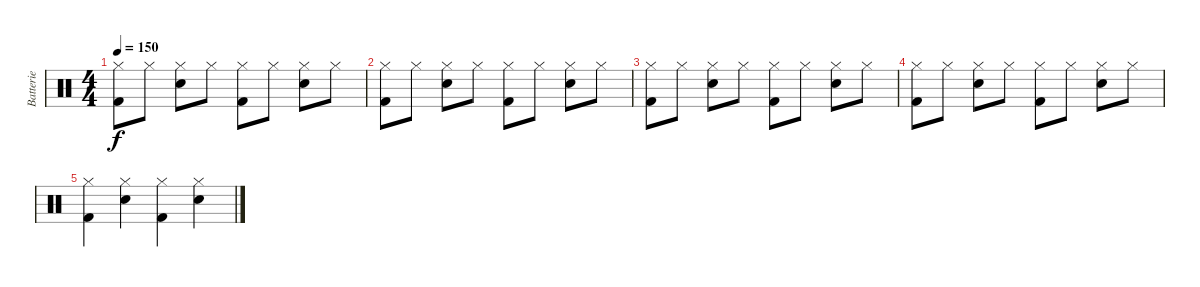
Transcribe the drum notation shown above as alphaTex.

\track ("Batterie" "Batterie") {instrument percussion}
\staff {score}
\articulation defaults
\ts (4 4)
\tempo 150
\clef neutral
\ks c
("Hi-Hat (closed)" "Kick (hit) 2").8{dy f} "Hi-Hat (closed)".8 ("Hi-Hat (closed)" "Snare (hit) 2").8 "Hi-Hat (closed)".8 ("Hi-Hat (closed)" "Kick (hit) 2").8 "Hi-Hat (closed)".8 ("Hi-Hat (closed)" "Snare (hit) 2").8 "Hi-Hat (closed)".8 |
("Hi-Hat (closed)" "Kick (hit) 2").8 "Hi-Hat (closed)".8 ("Hi-Hat (closed)" "Snare (hit) 2").8 "Hi-Hat (closed)".8 ("Hi-Hat (closed)" "Kick (hit) 2").8 "Hi-Hat (closed)".8 ("Hi-Hat (closed)" "Snare (hit) 2").8 "Hi-Hat (closed)".8 |
("Hi-Hat (closed)" "Kick (hit) 2").8 "Hi-Hat (closed)".8 ("Hi-Hat (closed)" "Snare (hit) 2").8 "Hi-Hat (closed)".8 ("Hi-Hat (closed)" "Kick (hit) 2").8 "Hi-Hat (closed)".8 ("Hi-Hat (closed)" "Snare (hit) 2").8 "Hi-Hat (closed)".8 |
("Hi-Hat (closed)" "Kick (hit) 2").8 "Hi-Hat (closed)".8 ("Hi-Hat (closed)" "Snare (hit) 2").8 "Hi-Hat (closed)".8 ("Hi-Hat (closed)" "Kick (hit) 2").8 "Hi-Hat (closed)".8 ("Hi-Hat (closed)" "Snare (hit) 2").8 "Hi-Hat (closed)".8 |
("Hi-Hat (closed)" "Kick (hit) 2").4 ("Hi-Hat (closed)" "Snare (hit) 2").4 ("Hi-Hat (closed)" "Kick (hit) 2").4 ("Hi-Hat (closed)" "Snare (hit) 2").4
